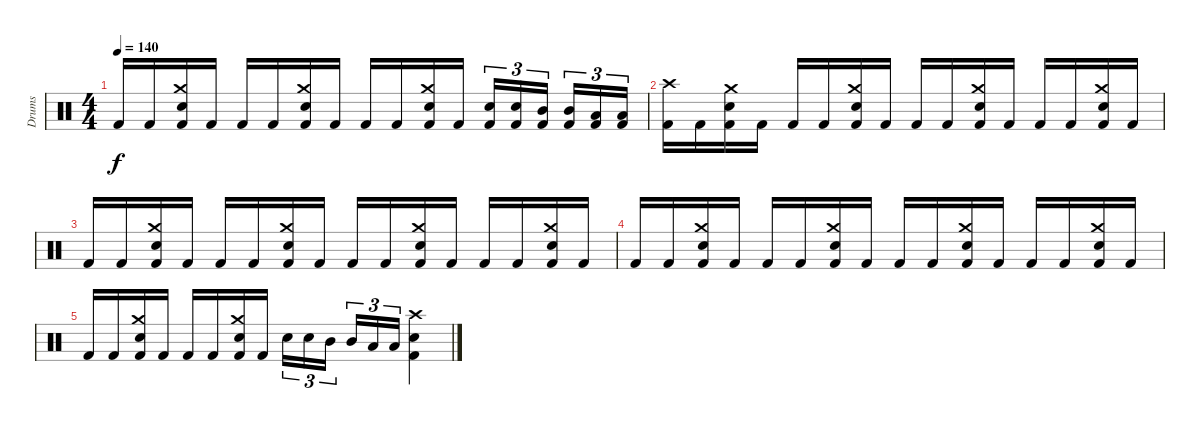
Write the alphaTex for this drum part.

\track ("Drums" "Drums") {instrument percussion}
\staff {score}
\articulation defaults
\ts (4 4)
\tempo 140
\clef neutral
\ks c "Kick (hit) 2".16{dy f} "Kick (hit) 2".16
("Crash medium (hit)" "Electric Snare (hit)" "Kick (hit) 2").16 "Kick (hit) 2".16 "Kick (hit) 2".16 "Kick (hit) 2".16 ("Crash medium (hit)" "Electric Snare (hit)" "Kick (hit) 2").16 "Kick (hit) 2".16 "Kick (hit) 2".16 "Kick (hit) 2".16 ("Crash medium (hit)" "Electric Snare (hit)" "Kick (hit) 2").16 "Kick (hit) 2".16 ("Electric Snare (hit)" "Kick (hit) 2").16{tu (3 2)} ("Electric Snare (hit)" "Kick (hit) 2").16{tu (3 2)} ("Mid Tom (hit)" "Kick (hit) 2").16{tu (3 2)} ("Mid Tom (hit)" "Kick (hit) 2").16{tu (3 2)} ("Low Tom (hit)" "Kick (hit) 2").16{tu (3 2)} ("Low Tom (hit)" "Kick (hit) 2").16{tu (3 2)} |
("Crash high (hit)" "Kick (hit) 2").16 "Kick (hit) 2".16 ("Crash medium (hit)" "Electric Snare (hit)" "Kick (hit) 2").16 "Kick (hit) 2".16 "Kick (hit) 2".16 "Kick (hit) 2".16 ("Crash medium (hit)" "Electric Snare (hit)" "Kick (hit) 2").16 "Kick (hit) 2".16 "Kick (hit) 2".16 "Kick (hit) 2".16 ("Crash medium (hit)" "Electric Snare (hit)" "Kick (hit) 2").16 "Kick (hit) 2".16 "Kick (hit) 2".16 "Kick (hit) 2".16 ("Crash medium (hit)" "Electric Snare (hit)" "Kick (hit) 2").16 "Kick (hit) 2".16 |
"Kick (hit) 2".16 "Kick (hit) 2".16 ("Crash medium (hit)" "Electric Snare (hit)" "Kick (hit) 2").16 "Kick (hit) 2".16 "Kick (hit) 2".16 "Kick (hit) 2".16 ("Crash medium (hit)" "Electric Snare (hit)" "Kick (hit) 2").16 "Kick (hit) 2".16 "Kick (hit) 2".16 "Kick (hit) 2".16 ("Crash medium (hit)" "Electric Snare (hit)" "Kick (hit) 2").16 "Kick (hit) 2".16 "Kick (hit) 2".16 "Kick (hit) 2".16 ("Crash medium (hit)" "Electric Snare (hit)" "Kick (hit) 2").16 "Kick (hit) 2".16 |
"Kick (hit) 2".16 "Kick (hit) 2".16 ("Crash medium (hit)" "Electric Snare (hit)" "Kick (hit) 2").16 "Kick (hit) 2".16 "Kick (hit) 2".16 "Kick (hit) 2".16 ("Crash medium (hit)" "Electric Snare (hit)" "Kick (hit) 2").16 "Kick (hit) 2".16 "Kick (hit) 2".16 "Kick (hit) 2".16 ("Crash medium (hit)" "Electric Snare (hit)" "Kick (hit) 2").16 "Kick (hit) 2".16 "Kick (hit) 2".16 "Kick (hit) 2".16 ("Crash medium (hit)" "Electric Snare (hit)" "Kick (hit) 2").16 "Kick (hit) 2".16 |
"Kick (hit) 2".16 "Kick (hit) 2".16 ("Crash medium (hit)" "Electric Snare (hit)" "Kick (hit) 2").16 "Kick (hit) 2".16 "Kick (hit) 2".16 "Kick (hit) 2".16 ("Crash medium (hit)" "Electric Snare (hit)" "Kick (hit) 2").16 "Kick (hit) 2".16 "Electric Snare (hit)".16{tu (3 2)} "Electric Snare (hit)".16{tu (3 2)} "Mid Tom (hit)".16{tu (3 2)} "Mid Tom (hit)".16{tu (3 2)} "Low Tom (hit)".16{tu (3 2)} "Low Tom (hit)".16{tu (3 2)} ("Crash high (hit)" "Electric Snare (hit)" "Kick (hit) 2").4
